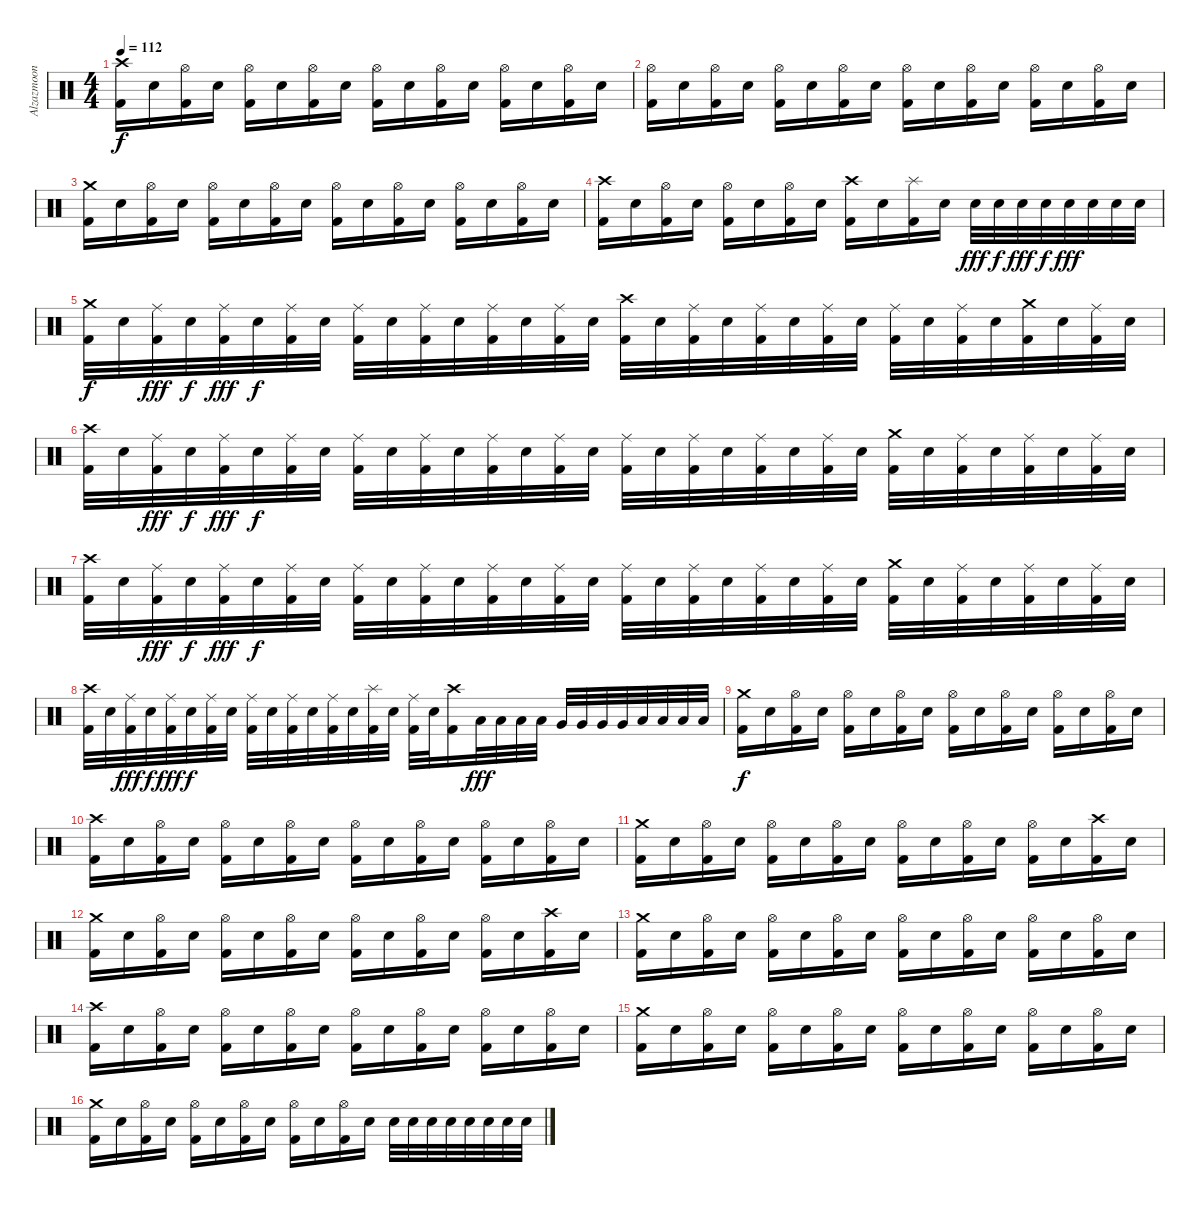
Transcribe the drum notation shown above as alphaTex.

\track ("Alzazmoon" "Alzazmoon") {instrument percussion}
\staff {score}
\articulation defaults
\ts (4 4)
\tempo 112
\clef neutral
\ks c
("Crash high (hit)" "Kick (hit) 2").16{dy f} "Snare (hit) 2".16 ("Hi-Hat (open)" "Kick (hit) 2").16 "Snare (hit) 2".16 ("Hi-Hat (open)" "Kick (hit) 2").16 "Snare (hit) 2".16 ("Hi-Hat (open)" "Kick (hit) 2").16 "Snare (hit) 2".16 ("Hi-Hat (open)" "Kick (hit) 2").16 "Snare (hit) 2".16 ("Hi-Hat (open)" "Kick (hit) 2").16 "Snare (hit) 2".16 ("Hi-Hat (open)" "Kick (hit) 2").16 "Snare (hit) 2".16 ("Hi-Hat (open)" "Kick (hit) 2").16 "Snare (hit) 2".16 |
("Hi-Hat (open)" "Kick (hit) 2").16 "Snare (hit) 2".16 ("Hi-Hat (open)" "Kick (hit) 2").16 "Snare (hit) 2".16 ("Hi-Hat (open)" "Kick (hit) 2").16 "Snare (hit) 2".16 ("Hi-Hat (open)" "Kick (hit) 2").16 "Snare (hit) 2".16 ("Hi-Hat (open)" "Kick (hit) 2").16 "Snare (hit) 2".16 ("Hi-Hat (open)" "Kick (hit) 2").16 "Snare (hit) 2".16 ("Hi-Hat (open)" "Kick (hit) 2").16 "Snare (hit) 2".16 ("Hi-Hat (open)" "Kick (hit) 2").16 "Snare (hit) 2".16 |
("Crash medium (hit)" "Kick (hit) 2").16 "Snare (hit) 2".16 ("Hi-Hat (open)" "Kick (hit) 2").16 "Snare (hit) 2".16 ("Hi-Hat (open)" "Kick (hit) 2").16 "Snare (hit) 2".16 ("Hi-Hat (open)" "Kick (hit) 2").16 "Snare (hit) 2".16 ("Hi-Hat (open)" "Kick (hit) 2").16 "Snare (hit) 2".16 ("Hi-Hat (open)" "Kick (hit) 2").16 "Snare (hit) 2".16 ("Hi-Hat (open)" "Kick (hit) 2").16 "Snare (hit) 2".16 ("Hi-Hat (open)" "Kick (hit) 2").16 "Snare (hit) 2".16 |
("Crash high (hit)" "Kick (hit) 2").16 "Snare (hit) 2".16 ("Hi-Hat (open)" "Kick (hit) 2").16 "Snare (hit) 2".16 ("Hi-Hat (open)" "Kick (hit) 2").16 "Snare (hit) 2".16 ("Hi-Hat (open)" "Kick (hit) 2").16 "Snare (hit) 2".16 ("Crash high (hit)" "Kick (hit) 2").16 "Snare (hit) 2".16 ("Splash (hit)" "Kick (hit) 2").16 "Snare (hit) 2".16 "Snare (hit) 2".32{dy fff} "Snare (hit) 2".32{dy f} "Snare (hit) 2".32{dy fff} "Snare (hit) 2".32{dy f} "Snare (hit) 2".32{dy fff} "Snare (hit) 2".32 "Snare (hit) 2".32 "Snare (hit) 2".32 |
("Crash medium (hit)" "Kick (hit) 2").32{dy f} "Snare (hit) 2".32 ("Ride (middle)" "Kick (hit) 2").32{dy fff} "Snare (hit) 2".32{dy f} ("Ride (middle)" "Kick (hit) 2").32{dy fff} "Snare (hit) 2".32{dy f} ("Ride (middle)" "Kick (hit) 2").32 "Snare (hit) 2".32 ("Ride (middle)" "Kick (hit) 2").32 "Snare (hit) 2".32 ("Ride (middle)" "Kick (hit) 2").32 "Snare (hit) 2".32 ("Ride (middle)" "Kick (hit) 2").32 "Snare (hit) 2".32 ("Ride (middle)" "Kick (hit) 2").32 "Snare (hit) 2".32 ("Crash high (hit)" "Kick (hit) 2").32 "Snare (hit) 2".32 ("Ride (middle)" "Kick (hit) 2").32 "Snare (hit) 2".32 ("Ride (middle)" "Kick (hit) 2").32 "Snare (hit) 2".32 ("Ride (middle)" "Kick (hit) 2").32 "Snare (hit) 2".32 ("Ride (middle)" "Kick (hit) 2").32 "Snare (hit) 2".32 ("Ride (middle)" "Kick (hit) 2").32 "Snare (hit) 2".32 ("Crash medium (hit)" "Kick (hit) 2").32 "Snare (hit) 2".32 ("Ride (middle)" "Kick (hit) 2").32 "Snare (hit) 2".32 |
("Crash high (hit)" "Kick (hit) 2").32 "Snare (hit) 2".32 ("Ride (middle)" "Kick (hit) 2").32{dy fff} "Snare (hit) 2".32{dy f} ("Ride (middle)" "Kick (hit) 2").32{dy fff} "Snare (hit) 2".32{dy f} ("Ride (middle)" "Kick (hit) 2").32 "Snare (hit) 2".32 ("Ride (middle)" "Kick (hit) 2").32 "Snare (hit) 2".32 ("Ride (middle)" "Kick (hit) 2").32 "Snare (hit) 2".32 ("Ride (middle)" "Kick (hit) 2").32 "Snare (hit) 2".32 ("Ride (middle)" "Kick (hit) 2").32 "Snare (hit) 2".32 ("Ride (middle)" "Kick (hit) 2").32 "Snare (hit) 2".32 ("Ride (middle)" "Kick (hit) 2").32 "Snare (hit) 2".32 ("Ride (middle)" "Kick (hit) 2").32 "Snare (hit) 2".32 ("Ride (middle)" "Kick (hit) 2").32 "Snare (hit) 2".32 ("Crash medium (hit)" "Kick (hit) 2").32 "Snare (hit) 2".32 ("Ride (middle)" "Kick (hit) 2").32 "Snare (hit) 2".32 ("Ride (middle)" "Kick (hit) 2").32 "Snare (hit) 2".32 ("Ride (middle)" "Kick (hit) 2").32 "Snare (hit) 2".32 |
("Crash high (hit)" "Kick (hit) 2").32 "Snare (hit) 2".32 ("Ride (middle)" "Kick (hit) 2").32{dy fff} "Snare (hit) 2".32{dy f} ("Ride (middle)" "Kick (hit) 2").32{dy fff} "Snare (hit) 2".32{dy f} ("Ride (middle)" "Kick (hit) 2").32 "Snare (hit) 2".32 ("Ride (middle)" "Kick (hit) 2").32 "Snare (hit) 2".32 ("Ride (middle)" "Kick (hit) 2").32 "Snare (hit) 2".32 ("Ride (middle)" "Kick (hit) 2").32 "Snare (hit) 2".32 ("Ride (middle)" "Kick (hit) 2").32 "Snare (hit) 2".32 ("Ride (middle)" "Kick (hit) 2").32 "Snare (hit) 2".32 ("Ride (middle)" "Kick (hit) 2").32 "Snare (hit) 2".32 ("Ride (middle)" "Kick (hit) 2").32 "Snare (hit) 2".32 ("Ride (middle)" "Kick (hit) 2").32 "Snare (hit) 2".32 ("Crash medium (hit)" "Kick (hit) 2").32 "Snare (hit) 2".32 ("Ride (middle)" "Kick (hit) 2").32 "Snare (hit) 2".32 ("Ride (middle)" "Kick (hit) 2").32 "Snare (hit) 2".32 ("Ride (middle)" "Kick (hit) 2").32 "Snare (hit) 2".32 |
("Crash high (hit)" "Kick (hit) 2").32 "Snare (hit) 2".32 ("Ride (middle)" "Kick (hit) 2").32{dy fff} "Snare (hit) 2".32{dy f} ("Ride (middle)" "Kick (hit) 2").32{dy fff} "Snare (hit) 2".32{dy f} ("Ride (middle)" "Kick (hit) 2").32 "Snare (hit) 2".32 ("Ride (middle)" "Kick (hit) 2").32 "Snare (hit) 2".32 ("Ride (middle)" "Kick (hit) 2").32 "Snare (hit) 2".32 ("Ride (middle)" "Kick (hit) 2").32 "Snare (hit) 2".32 ("Splash (hit)" "Kick (hit) 2").32 "Snare (hit) 2".32 ("Ride (middle)" "Kick (hit) 2").32 "Snare (hit) 2".32 ("Crash high (hit)" "Kick (hit) 2").16 "Low Tom (hit)".32{dy fff} "Low Tom (hit)".32 "Low Tom (hit)".32 "Low Tom (hit)".32 "Very Low Tom (hit)".32 "Very Low Tom (hit)".32 "Very Low Tom (hit)".32 "Very Low Tom (hit)".32 "Low Floor Tom (hit)".32 "Low Floor Tom (hit)".32 "Low Floor Tom (hit)".32 "Low Floor Tom (hit)".32 |
("Crash medium (hit)" "Kick (hit) 2").16{dy f} "Snare (hit) 2".16 ("Hi-Hat (open)" "Kick (hit) 2").16 "Snare (hit) 2".16 ("Hi-Hat (open)" "Kick (hit) 2").16 "Snare (hit) 2".16 ("Hi-Hat (open)" "Kick (hit) 2").16 "Snare (hit) 2".16 ("Hi-Hat (open)" "Kick (hit) 2").16 "Snare (hit) 2".16 ("Hi-Hat (open)" "Kick (hit) 2").16 "Snare (hit) 2".16 ("Hi-Hat (open)" "Kick (hit) 2").16 "Snare (hit) 2".16 ("Hi-Hat (open)" "Kick (hit) 2").16 "Snare (hit) 2".16 |
("Crash high (hit)" "Kick (hit) 2").16 "Snare (hit) 2".16 ("Hi-Hat (open)" "Kick (hit) 2").16 "Snare (hit) 2".16 ("Hi-Hat (open)" "Kick (hit) 2").16 "Snare (hit) 2".16 ("Hi-Hat (open)" "Kick (hit) 2").16 "Snare (hit) 2".16 ("Hi-Hat (open)" "Kick (hit) 2").16 "Snare (hit) 2".16 ("Hi-Hat (open)" "Kick (hit) 2").16 "Snare (hit) 2".16 ("Hi-Hat (open)" "Kick (hit) 2").16 "Snare (hit) 2".16 ("Hi-Hat (open)" "Kick (hit) 2").16 "Snare (hit) 2".16 |
("Crash medium (hit)" "Kick (hit) 2").16 "Snare (hit) 2".16 ("Hi-Hat (open)" "Kick (hit) 2").16 "Snare (hit) 2".16 ("Hi-Hat (open)" "Kick (hit) 2").16 "Snare (hit) 2".16 ("Hi-Hat (open)" "Kick (hit) 2").16 "Snare (hit) 2".16 ("Hi-Hat (open)" "Kick (hit) 2").16 "Snare (hit) 2".16 ("Hi-Hat (open)" "Kick (hit) 2").16 "Snare (hit) 2".16 ("Hi-Hat (open)" "Kick (hit) 2").16 "Snare (hit) 2".16 ("Crash high (hit)" "Kick (hit) 2").16 "Snare (hit) 2".16 |
("Crash medium (hit)" "Kick (hit) 2").16 "Snare (hit) 2".16 ("Hi-Hat (open)" "Kick (hit) 2").16 "Snare (hit) 2".16 ("Hi-Hat (open)" "Kick (hit) 2").16 "Snare (hit) 2".16 ("Hi-Hat (open)" "Kick (hit) 2").16 "Snare (hit) 2".16 ("Hi-Hat (open)" "Kick (hit) 2").16 "Snare (hit) 2".16 ("Hi-Hat (open)" "Kick (hit) 2").16 "Snare (hit) 2".16 ("Hi-Hat (open)" "Kick (hit) 2").16 "Snare (hit) 2".16 ("Crash high (hit)" "Kick (hit) 2").16 "Snare (hit) 2".16 |
("Crash medium (hit)" "Kick (hit) 2").16 "Snare (hit) 2".16 ("Hi-Hat (open)" "Kick (hit) 2").16 "Snare (hit) 2".16 ("Hi-Hat (open)" "Kick (hit) 2").16 "Snare (hit) 2".16 ("Hi-Hat (open)" "Kick (hit) 2").16 "Snare (hit) 2".16 ("Hi-Hat (open)" "Kick (hit) 2").16 "Snare (hit) 2".16 ("Hi-Hat (open)" "Kick (hit) 2").16 "Snare (hit) 2".16 ("Hi-Hat (open)" "Kick (hit) 2").16 "Snare (hit) 2".16 ("Hi-Hat (open)" "Kick (hit) 2").16 "Snare (hit) 2".16 |
("Crash high (hit)" "Kick (hit) 2").16 "Snare (hit) 2".16 ("Hi-Hat (open)" "Kick (hit) 2").16 "Snare (hit) 2".16 ("Hi-Hat (open)" "Kick (hit) 2").16 "Snare (hit) 2".16 ("Hi-Hat (open)" "Kick (hit) 2").16 "Snare (hit) 2".16 ("Hi-Hat (open)" "Kick (hit) 2").16 "Snare (hit) 2".16 ("Hi-Hat (open)" "Kick (hit) 2").16 "Snare (hit) 2".16 ("Hi-Hat (open)" "Kick (hit) 2").16 "Snare (hit) 2".16 ("Hi-Hat (open)" "Kick (hit) 2").16 "Snare (hit) 2".16 |
("Crash medium (hit)" "Kick (hit) 2").16 "Snare (hit) 2".16 ("Hi-Hat (open)" "Kick (hit) 2").16 "Snare (hit) 2".16 ("Hi-Hat (open)" "Kick (hit) 2").16 "Snare (hit) 2".16 ("Hi-Hat (open)" "Kick (hit) 2").16 "Snare (hit) 2".16 ("Hi-Hat (open)" "Kick (hit) 2").16 "Snare (hit) 2".16 ("Hi-Hat (open)" "Kick (hit) 2").16 "Snare (hit) 2".16 ("Hi-Hat (open)" "Kick (hit) 2").16 "Snare (hit) 2".16 ("Hi-Hat (open)" "Kick (hit) 2").16 "Snare (hit) 2".16 |
("Crash medium (hit)" "Kick (hit) 2").16 "Snare (hit) 2".16 ("Hi-Hat (open)" "Kick (hit) 2").16 "Snare (hit) 2".16 ("Hi-Hat (open)" "Kick (hit) 2").16 "Snare (hit) 2".16 ("Hi-Hat (open)" "Kick (hit) 2").16 "Snare (hit) 2".16 ("Hi-Hat (open)" "Kick (hit) 2").16 "Snare (hit) 2".16 ("Hi-Hat (open)" "Kick (hit) 2").16 "Snare (hit) 2".16 "Snare (hit) 2".32 "Snare (hit) 2".32 "Snare (hit) 2".32 "Snare (hit) 2".32 "Snare (hit) 2".32 "Snare (hit) 2".32 "Snare (hit) 2".32 "Snare (hit) 2".32
